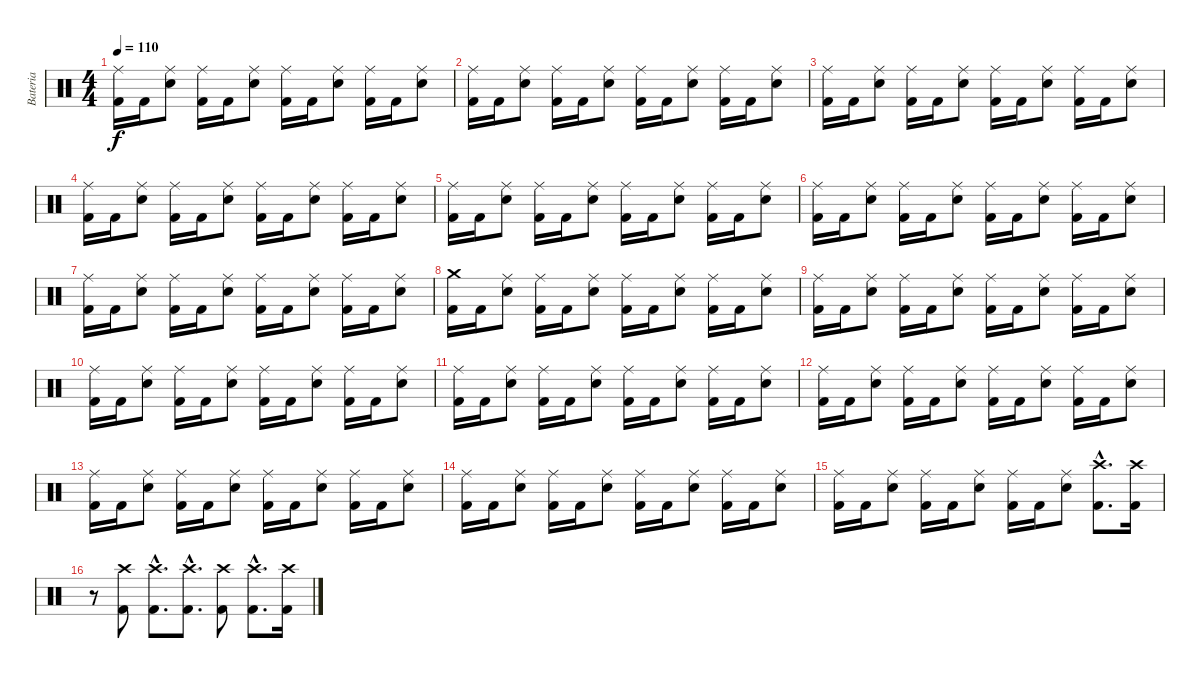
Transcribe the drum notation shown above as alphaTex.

\track ("Bateria" "Bateria") {instrument percussion}
\staff {score}
\articulation defaults
\ts (4 4)
\tempo 110
\clef neutral
\ks c
("Kick (hit) 2" "Ride (middle)").16{dy f} "Kick (hit) 2".16 ("Ride (middle)" "Snare (hit) 2").8 ("Kick (hit) 2" "Ride (middle)").16 "Kick (hit) 2".16 ("Ride (middle)" "Snare (hit) 2").8 ("Kick (hit) 2" "Ride (middle)").16 "Kick (hit) 2".16 ("Ride (middle)" "Snare (hit) 2").8 ("Kick (hit) 2" "Ride (middle)").16 "Kick (hit) 2".16 ("Ride (middle)" "Snare (hit) 2").8 |
("Kick (hit) 2" "Ride (middle)").16 "Kick (hit) 2".16 ("Ride (middle)" "Snare (hit) 2").8 ("Kick (hit) 2" "Ride (middle)").16 "Kick (hit) 2".16 ("Ride (middle)" "Snare (hit) 2").8 ("Kick (hit) 2" "Ride (middle)").16 "Kick (hit) 2".16 ("Ride (middle)" "Snare (hit) 2").8 ("Kick (hit) 2" "Ride (middle)").16 "Kick (hit) 2".16 ("Ride (middle)" "Snare (hit) 2").8 |
("Kick (hit) 2" "Ride (middle)").16 "Kick (hit) 2".16 ("Ride (middle)" "Snare (hit) 2").8 ("Kick (hit) 2" "Ride (middle)").16 "Kick (hit) 2".16 ("Ride (middle)" "Snare (hit) 2").8 ("Kick (hit) 2" "Ride (middle)").16 "Kick (hit) 2".16 ("Ride (middle)" "Snare (hit) 2").8 ("Kick (hit) 2" "Ride (middle)").16 "Kick (hit) 2".16 ("Ride (middle)" "Snare (hit) 2").8 |
("Kick (hit) 2" "Ride (middle)").16 "Kick (hit) 2".16 ("Ride (middle)" "Snare (hit) 2").8 ("Kick (hit) 2" "Ride (middle)").16 "Kick (hit) 2".16 ("Ride (middle)" "Snare (hit) 2").8 ("Kick (hit) 2" "Ride (middle)").16 "Kick (hit) 2".16 ("Ride (middle)" "Snare (hit) 2").8 ("Kick (hit) 2" "Ride (middle)").16 "Kick (hit) 2".16 ("Ride (middle)" "Snare (hit) 2").8 |
("Kick (hit) 2" "Ride (middle)").16 "Kick (hit) 2".16 ("Ride (middle)" "Snare (hit) 2").8 ("Kick (hit) 2" "Ride (middle)").16 "Kick (hit) 2".16 ("Ride (middle)" "Snare (hit) 2").8 ("Kick (hit) 2" "Ride (middle)").16 "Kick (hit) 2".16 ("Ride (middle)" "Snare (hit) 2").8 ("Kick (hit) 2" "Ride (middle)").16 "Kick (hit) 2".16 ("Ride (middle)" "Snare (hit) 2").8 |
("Kick (hit) 2" "Ride (middle)").16 "Kick (hit) 2".16 ("Ride (middle)" "Snare (hit) 2").8 ("Kick (hit) 2" "Ride (middle)").16 "Kick (hit) 2".16 ("Ride (middle)" "Snare (hit) 2").8 ("Kick (hit) 2" "Ride (middle)").16 "Kick (hit) 2".16 ("Ride (middle)" "Snare (hit) 2").8 ("Kick (hit) 2" "Ride (middle)").16 "Kick (hit) 2".16 ("Ride (middle)" "Snare (hit) 2").8 |
("Kick (hit) 2" "Ride (middle)").16 "Kick (hit) 2".16 ("Ride (middle)" "Snare (hit) 2").8 ("Kick (hit) 2" "Ride (middle)").16 "Kick (hit) 2".16 ("Ride (middle)" "Snare (hit) 2").8 ("Kick (hit) 2" "Ride (middle)").16 "Kick (hit) 2".16 ("Ride (middle)" "Snare (hit) 2").8 ("Kick (hit) 2" "Ride (middle)").16 "Kick (hit) 2".16 ("Ride (middle)" "Snare (hit) 2").8 |
("Kick (hit) 2" "Crash medium (hit)").16 "Kick (hit) 2".16 ("Ride (middle)" "Snare (hit) 2").8 ("Kick (hit) 2" "Ride (middle)").16 "Kick (hit) 2".16 ("Ride (middle)" "Snare (hit) 2").8 ("Kick (hit) 2" "Ride (middle)").16 "Kick (hit) 2".16 ("Ride (middle)" "Snare (hit) 2").8 ("Kick (hit) 2" "Ride (middle)").16 "Kick (hit) 2".16 ("Ride (middle)" "Snare (hit) 2").8 |
("Kick (hit) 2" "Ride (middle)").16 "Kick (hit) 2".16 ("Ride (middle)" "Snare (hit) 2").8 ("Kick (hit) 2" "Ride (middle)").16 "Kick (hit) 2".16 ("Ride (middle)" "Snare (hit) 2").8 ("Kick (hit) 2" "Ride (middle)").16 "Kick (hit) 2".16 ("Ride (middle)" "Snare (hit) 2").8 ("Kick (hit) 2" "Ride (middle)").16 "Kick (hit) 2".16 ("Ride (middle)" "Snare (hit) 2").8 |
("Kick (hit) 2" "Ride (middle)").16 "Kick (hit) 2".16 ("Ride (middle)" "Snare (hit) 2").8 ("Kick (hit) 2" "Ride (middle)").16 "Kick (hit) 2".16 ("Ride (middle)" "Snare (hit) 2").8 ("Kick (hit) 2" "Ride (middle)").16 "Kick (hit) 2".16 ("Ride (middle)" "Snare (hit) 2").8 ("Kick (hit) 2" "Ride (middle)").16 "Kick (hit) 2".16 ("Ride (middle)" "Snare (hit) 2").8 |
("Kick (hit) 2" "Ride (middle)").16 "Kick (hit) 2".16 ("Ride (middle)" "Snare (hit) 2").8 ("Kick (hit) 2" "Ride (middle)").16 "Kick (hit) 2".16 ("Ride (middle)" "Snare (hit) 2").8 ("Kick (hit) 2" "Ride (middle)").16 "Kick (hit) 2".16 ("Ride (middle)" "Snare (hit) 2").8 ("Kick (hit) 2" "Ride (middle)").16 "Kick (hit) 2".16 ("Ride (middle)" "Snare (hit) 2").8 |
("Kick (hit) 2" "Ride (middle)").16 "Kick (hit) 2".16 ("Ride (middle)" "Snare (hit) 2").8 ("Kick (hit) 2" "Ride (middle)").16 "Kick (hit) 2".16 ("Ride (middle)" "Snare (hit) 2").8 ("Kick (hit) 2" "Ride (middle)").16 "Kick (hit) 2".16 ("Ride (middle)" "Snare (hit) 2").8 ("Kick (hit) 2" "Ride (middle)").16 "Kick (hit) 2".16 ("Ride (middle)" "Snare (hit) 2").8 |
("Kick (hit) 2" "Ride (middle)").16 "Kick (hit) 2".16 ("Ride (middle)" "Snare (hit) 2").8 ("Kick (hit) 2" "Ride (middle)").16 "Kick (hit) 2".16 ("Ride (middle)" "Snare (hit) 2").8 ("Kick (hit) 2" "Ride (middle)").16 "Kick (hit) 2".16 ("Ride (middle)" "Snare (hit) 2").8 ("Kick (hit) 2" "Ride (middle)").16 "Kick (hit) 2".16 ("Ride (middle)" "Snare (hit) 2").8 |
("Kick (hit) 2" "Ride (middle)").16 "Kick (hit) 2".16 ("Ride (middle)" "Snare (hit) 2").8 ("Kick (hit) 2" "Ride (middle)").16 "Kick (hit) 2".16 ("Ride (middle)" "Snare (hit) 2").8 ("Kick (hit) 2" "Ride (middle)").16 "Kick (hit) 2".16 ("Ride (middle)" "Snare (hit) 2").8 ("Kick (hit) 2" "Ride (middle)").16 "Kick (hit) 2".16 ("Ride (middle)" "Snare (hit) 2").8 |
("Kick (hit) 2" "Ride (middle)").16 "Kick (hit) 2".16 ("Ride (middle)" "Snare (hit) 2").8 ("Kick (hit) 2" "Ride (middle)").16 "Kick (hit) 2".16 ("Ride (middle)" "Snare (hit) 2").8 ("Kick (hit) 2" "Ride (middle)").16 "Kick (hit) 2".16 ("Ride (middle)" "Snare (hit) 2").8 ("Kick (hit) 2"{hac} "Crash high (hit)"{hac}).8{d} ("Kick (hit) 2" "Crash high (hit)").16 |
r.8 ("Kick (hit) 2" "Crash high (hit)").8 ("Kick (hit) 2"{hac} "Crash high (hit)"{hac}).8{d} ("Kick (hit) 2"{hac} "Crash high (hit)"{hac}).8{d} ("Kick (hit) 2" "Crash high (hit)").8 ("Kick (hit) 2"{hac} "Crash high (hit)"{hac}).8{d} ("Kick (hit) 2" "Crash high (hit)").16
